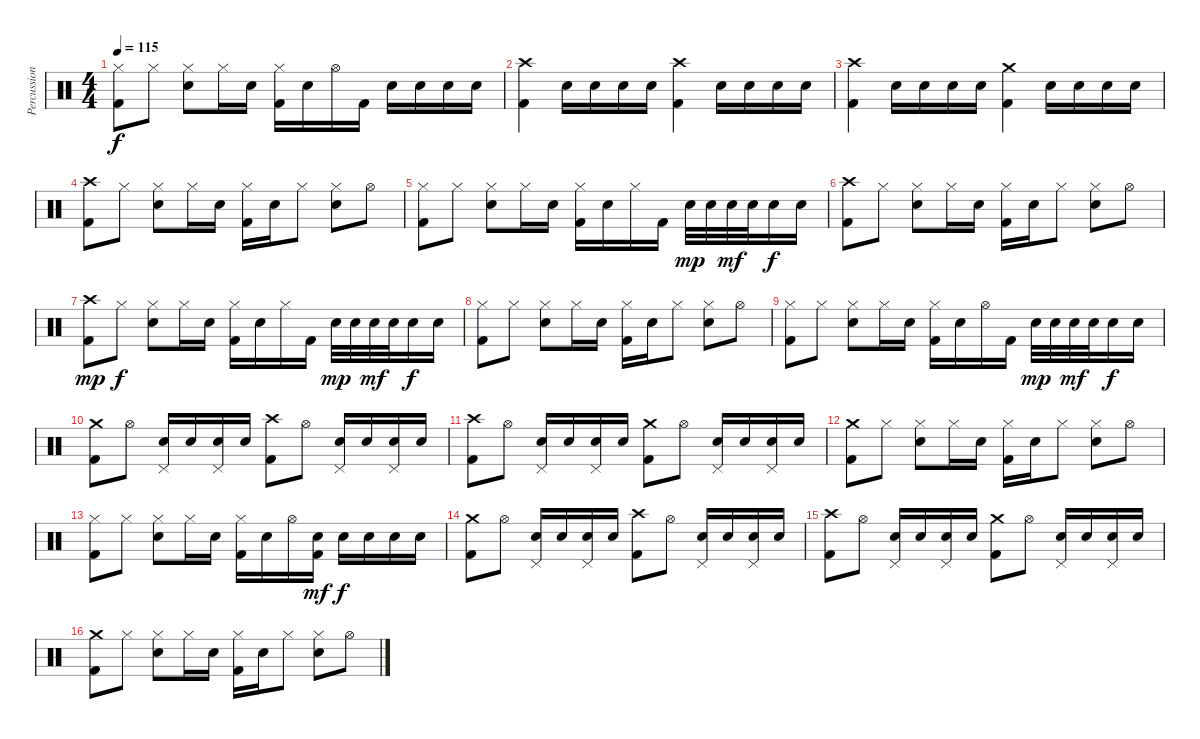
\track ("Percussion" "Percussion") {instrument percussion}
\staff {score}
\articulation defaults
\ts (4 4)
\tempo 115
\clef neutral
\ks c
("Hi-Hat (closed)" "Kick (hit) 2").8{dy f} "Hi-Hat (closed)".8 ("Hi-Hat (closed)" "Electric Snare (hit)").8 "Hi-Hat (closed)".16 "Electric Snare (hit)".16 ("Hi-Hat (closed)" "Kick (hit) 2").16 "Electric Snare (hit)".16 "Hi-Hat (open)".16 "Kick (hit) 2".16 "Electric Snare (hit)".16 "Electric Snare (hit)".16 "Electric Snare (hit)".16 "Electric Snare (hit)".16 |
("Crash high (hit)" "Kick (hit) 2").4 "Electric Snare (hit)".16 "Electric Snare (hit)".16 "Electric Snare (hit)".16 "Electric Snare (hit)".16 ("Crash high (hit)" "Kick (hit) 2").4 "Electric Snare (hit)".16 "Electric Snare (hit)".16 "Electric Snare (hit)".16 "Electric Snare (hit)".16 |
("Crash high (hit)" "Kick (hit) 2").4 "Electric Snare (hit)".16 "Electric Snare (hit)".16 "Electric Snare (hit)".16 "Electric Snare (hit)".16 ("Crash medium (hit)" "Kick (hit) 2").4 "Electric Snare (hit)".16 "Electric Snare (hit)".16 "Electric Snare (hit)".16 "Electric Snare (hit)".16 |
("Crash high (hit)" "Kick (hit) 2").8 "Hi-Hat (closed)".8 ("Hi-Hat (closed)" "Electric Snare (hit)").8 "Hi-Hat (closed)".16 "Electric Snare (hit)".16 ("Hi-Hat (closed)" "Kick (hit) 2").16 "Electric Snare (hit)".16 "Hi-Hat (closed)".8 ("Hi-Hat (closed)" "Electric Snare (hit)").8 "Hi-Hat (open)".8 |
("Hi-Hat (closed)" "Kick (hit) 2").8 "Hi-Hat (closed)".8 ("Hi-Hat (closed)" "Electric Snare (hit)").8 "Hi-Hat (closed)".16 "Electric Snare (hit)".16 ("Hi-Hat (closed)" "Kick (hit) 2").16 "Electric Snare (hit)".16 "Hi-Hat (closed)".16 "Kick (hit) 2".16 "Electric Snare (hit)".32{dy mp} "Electric Snare (hit)".32 "Electric Snare (hit)".32{dy mf} "Electric Snare (hit)".32 "Electric Snare (hit)".16{dy f} "Electric Snare (hit)".16 |
("Crash high (hit)" "Kick (hit) 2").8 "Hi-Hat (closed)".8 ("Hi-Hat (closed)" "Electric Snare (hit)").8 "Hi-Hat (closed)".16 "Electric Snare (hit)".16 ("Hi-Hat (closed)" "Kick (hit) 2").16 "Electric Snare (hit)".16 "Hi-Hat (closed)".8 ("Hi-Hat (closed)" "Electric Snare (hit)").8 "Hi-Hat (open)".8 |
("Crash high (hit)" "Kick (hit) 2").8{dy mp} "Hi-Hat (closed)".8{dy f} ("Hi-Hat (closed)" "Electric Snare (hit)").8 "Hi-Hat (closed)".16 "Electric Snare (hit)".16 ("Hi-Hat (closed)" "Kick (hit) 2").16 "Electric Snare (hit)".16 "Hi-Hat (closed)".16 "Kick (hit) 2".16 "Electric Snare (hit)".32{dy mp} "Electric Snare (hit)".32 "Electric Snare (hit)".32{dy mf} "Electric Snare (hit)".32 "Electric Snare (hit)".16{dy f} "Electric Snare (hit)".16 |
("Hi-Hat (closed)" "Kick (hit) 2").8 "Hi-Hat (closed)".8 ("Hi-Hat (closed)" "Electric Snare (hit)").8 "Hi-Hat (closed)".16 "Electric Snare (hit)".16 ("Hi-Hat (closed)" "Kick (hit) 2").16 "Electric Snare (hit)".16 "Hi-Hat (closed)".8 ("Hi-Hat (closed)" "Electric Snare (hit)").8 "Hi-Hat (open)".8 |
("Hi-Hat (closed)" "Kick (hit) 2").8 "Hi-Hat (closed)".8 ("Hi-Hat (closed)" "Electric Snare (hit)").8 "Hi-Hat (closed)".16 "Electric Snare (hit)".16 ("Hi-Hat (closed)" "Kick (hit) 2").16 "Electric Snare (hit)".16 "Hi-Hat (open)".16 "Kick (hit) 2".16 "Electric Snare (hit)".32{dy mp} "Electric Snare (hit)".32 "Electric Snare (hit)".32{dy mf} "Electric Snare (hit)".32 "Electric Snare (hit)".16{dy f} "Electric Snare (hit)".16 |
("Crash medium (hit)" "Kick (hit) 2").8 "Hi-Hat (open)".8 ("Pedal Hi-Hat (hit)" "Electric Snare (hit)").16 "Electric Snare (hit)".16 ("Pedal Hi-Hat (hit)" "Electric Snare (hit)").16 "Electric Snare (hit)".16 ("Crash high (hit)" "Kick (hit) 2").8 "Hi-Hat (open)".8 ("Pedal Hi-Hat (hit)" "Electric Snare (hit)").16 "Electric Snare (hit)".16 ("Pedal Hi-Hat (hit)" "Electric Snare (hit)").16 "Electric Snare (hit)".16 |
("Crash high (hit)" "Kick (hit) 2").8 "Hi-Hat (open)".8 ("Pedal Hi-Hat (hit)" "Electric Snare (hit)").16 "Electric Snare (hit)".16 ("Pedal Hi-Hat (hit)" "Electric Snare (hit)").16 "Electric Snare (hit)".16 ("Crash medium (hit)" "Kick (hit) 2").8 "Hi-Hat (open)".8 ("Pedal Hi-Hat (hit)" "Electric Snare (hit)").16 "Electric Snare (hit)".16 ("Pedal Hi-Hat (hit)" "Electric Snare (hit)").16 "Electric Snare (hit)".16 |
("Crash medium (hit)" "Kick (hit) 2").8 "Hi-Hat (closed)".8 ("Hi-Hat (closed)" "Electric Snare (hit)").8 "Hi-Hat (closed)".16 "Electric Snare (hit)".16 ("Hi-Hat (closed)" "Kick (hit) 2").16 "Electric Snare (hit)".16 "Hi-Hat (closed)".8 ("Hi-Hat (closed)" "Electric Snare (hit)").8 "Hi-Hat (open)".8 |
("Hi-Hat (closed)" "Kick (hit) 2").8 "Hi-Hat (closed)".8 ("Hi-Hat (closed)" "Electric Snare (hit)").8 "Hi-Hat (closed)".16 "Electric Snare (hit)".16 ("Hi-Hat (closed)" "Kick (hit) 2").16 "Electric Snare (hit)".16 "Hi-Hat (open)".16 ("Electric Snare (hit)" "Kick (hit) 2").16{dy mf} "Electric Snare (hit)".16{dy f} "Electric Snare (hit)".16 "Electric Snare (hit)".16 "Electric Snare (hit)".16 |
("Crash medium (hit)" "Kick (hit) 2").8 "Hi-Hat (open)".8 ("Pedal Hi-Hat (hit)" "Electric Snare (hit)").16 "Electric Snare (hit)".16 ("Pedal Hi-Hat (hit)" "Electric Snare (hit)").16 "Electric Snare (hit)".16 ("Crash high (hit)" "Kick (hit) 2").8 "Hi-Hat (open)".8 ("Pedal Hi-Hat (hit)" "Electric Snare (hit)").16 "Electric Snare (hit)".16 ("Pedal Hi-Hat (hit)" "Electric Snare (hit)").16 "Electric Snare (hit)".16 |
("Crash high (hit)" "Kick (hit) 2").8 "Hi-Hat (open)".8 ("Pedal Hi-Hat (hit)" "Electric Snare (hit)").16 "Electric Snare (hit)".16 ("Pedal Hi-Hat (hit)" "Electric Snare (hit)").16 "Electric Snare (hit)".16 ("Crash medium (hit)" "Kick (hit) 2").8 "Hi-Hat (open)".8 ("Pedal Hi-Hat (hit)" "Electric Snare (hit)").16 "Electric Snare (hit)".16 ("Pedal Hi-Hat (hit)" "Electric Snare (hit)").16 "Electric Snare (hit)".16 |
("Crash medium (hit)" "Kick (hit) 2").8 "Hi-Hat (closed)".8 ("Hi-Hat (closed)" "Electric Snare (hit)").8 "Hi-Hat (closed)".16 "Electric Snare (hit)".16 ("Hi-Hat (closed)" "Kick (hit) 2").16 "Electric Snare (hit)".16 "Hi-Hat (closed)".8 ("Hi-Hat (closed)" "Electric Snare (hit)").8 "Hi-Hat (open)".8
